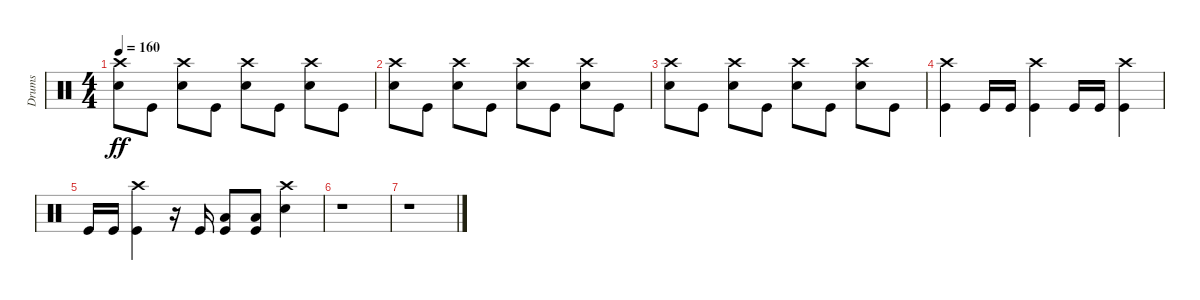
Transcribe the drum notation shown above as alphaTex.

\track ("Drums" "Drums") {instrument percussion}
\staff {score}
\articulation defaults
\ts (4 4)
\tempo 160
\clef neutral
\ks c
("Crash high (hit)" "Snare (hit) 2").8{dy ff} "Kick (hit)".8 ("Crash high (hit)" "Snare (hit) 2").8 "Kick (hit)".8 ("Crash high (hit)" "Snare (hit) 2").8 "Kick (hit)".8 ("Crash high (hit)" "Snare (hit) 2").8 "Kick (hit)".8 |
("Crash high (hit)" "Snare (hit) 2").8 "Kick (hit)".8 ("Crash high (hit)" "Snare (hit) 2").8 "Kick (hit)".8 ("Crash high (hit)" "Snare (hit) 2").8 "Kick (hit)".8 ("Crash high (hit)" "Snare (hit) 2").8 "Kick (hit)".8 |
("Crash high (hit)" "Snare (hit) 2").8 "Kick (hit)".8 ("Crash high (hit)" "Snare (hit) 2").8 "Kick (hit)".8 ("Crash high (hit)" "Snare (hit) 2").8 "Kick (hit)".8 ("Crash high (hit)" "Snare (hit) 2").8 "Kick (hit)".8 |
("Crash high (hit)" "Kick (hit)").4 "Kick (hit)".16 "Kick (hit)".16 ("Crash high (hit)" "Kick (hit)").4 "Kick (hit)".16 "Kick (hit)".16 ("Crash high (hit)" "Kick (hit)").4 |
"Kick (hit)".16 "Kick (hit)".16 ("Crash high (hit)" "Kick (hit)").4 r.16 "Kick (hit)".16 ("Low Floor Tom (hit)" "Kick (hit)").8 ("Low Floor Tom (hit)" "Kick (hit)").8 ("Crash high (hit)" "Snare (hit) 2").4 |
r.1{volume 0} |
r.1
